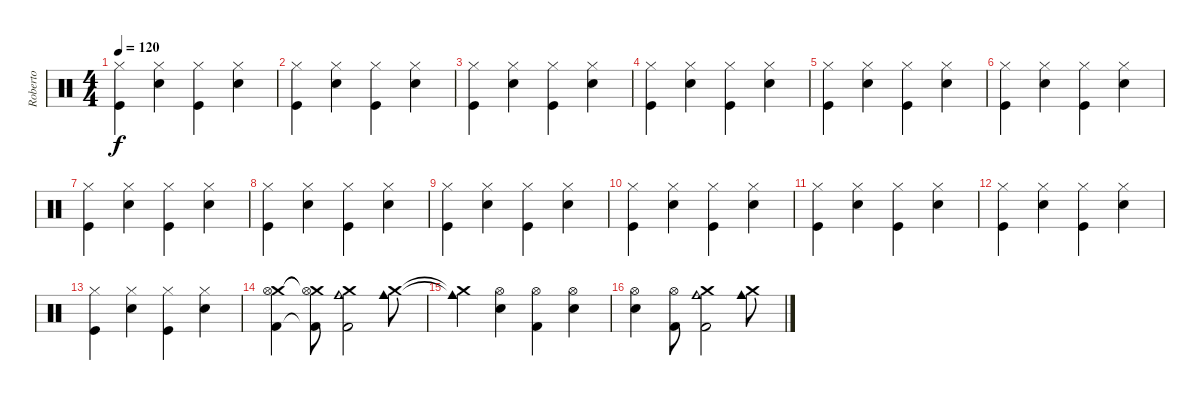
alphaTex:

\track ("Roberto" "Roberto") {instrument percussion}
\staff {score}
\articulation defaults
\ts (4 4)
\tempo 120
\clef neutral
\ks c
("Hi-Hat (closed)" "Kick (hit)").4{dy f} ("Hi-Hat (closed)" "Snare (hit) 2").4 ("Hi-Hat (closed)" "Kick (hit)").4 ("Hi-Hat (closed)" "Snare (hit) 2").4 |
("Hi-Hat (closed)" "Kick (hit)").4 ("Hi-Hat (closed)" "Snare (hit) 2").4 ("Hi-Hat (closed)" "Kick (hit)").4 ("Hi-Hat (closed)" "Snare (hit) 2").4 |
("Hi-Hat (closed)" "Kick (hit)").4 ("Hi-Hat (closed)" "Snare (hit) 2").4 ("Hi-Hat (closed)" "Kick (hit)").4 ("Hi-Hat (closed)" "Snare (hit) 2").4 |
("Hi-Hat (closed)" "Kick (hit)").4 ("Hi-Hat (closed)" "Snare (hit) 2").4 ("Hi-Hat (closed)" "Kick (hit)").4 ("Hi-Hat (closed)" "Snare (hit) 2").4 |
("Hi-Hat (closed)" "Kick (hit)").4 ("Hi-Hat (closed)" "Snare (hit) 2").4 ("Hi-Hat (closed)" "Kick (hit)").4 ("Hi-Hat (closed)" "Snare (hit) 2").4 |
("Hi-Hat (closed)" "Kick (hit)").4 ("Hi-Hat (closed)" "Snare (hit) 2").4 ("Hi-Hat (closed)" "Kick (hit)").4 ("Hi-Hat (closed)" "Snare (hit) 2").4 |
("Hi-Hat (closed)" "Kick (hit)").4 ("Hi-Hat (closed)" "Snare (hit) 2").4 ("Hi-Hat (closed)" "Kick (hit)").4 ("Hi-Hat (closed)" "Snare (hit) 2").4 |
("Hi-Hat (closed)" "Kick (hit)").4 ("Hi-Hat (closed)" "Snare (hit) 2").4 ("Hi-Hat (closed)" "Kick (hit)").4 ("Hi-Hat (closed)" "Snare (hit) 2").4 |
("Hi-Hat (closed)" "Kick (hit)").4 ("Hi-Hat (closed)" "Snare (hit) 2").4 ("Hi-Hat (closed)" "Kick (hit)").4 ("Hi-Hat (closed)" "Snare (hit) 2").4 |
("Hi-Hat (closed)" "Kick (hit)").4 ("Hi-Hat (closed)" "Snare (hit) 2").4 ("Hi-Hat (closed)" "Kick (hit)").4 ("Hi-Hat (closed)" "Snare (hit) 2").4 |
("Hi-Hat (closed)" "Kick (hit)").4 ("Hi-Hat (closed)" "Snare (hit) 2").4 ("Hi-Hat (closed)" "Kick (hit)").4 ("Hi-Hat (closed)" "Snare (hit) 2").4 |
("Hi-Hat (closed)" "Kick (hit)").4 ("Hi-Hat (closed)" "Snare (hit) 2").4 ("Hi-Hat (closed)" "Kick (hit)").4 ("Hi-Hat (closed)" "Snare (hit) 2").4 |
("Hi-Hat (closed)" "Kick (hit)").4 ("Hi-Hat (closed)" "Snare (hit) 2").4 ("Hi-Hat (closed)" "Kick (hit)").4 ("Hi-Hat (closed)" "Snare (hit) 2").4 |
("Crash medium (hit)" "Hi-Hat (open)" "Kick (hit) 2").4 ("Crash medium (hit)"{t} "Hi-Hat (open)"{t} "Kick (hit) 2"{t}).8 ("Crash medium (hit)" "Cowbell medium (hit)" "Kick (hit) 2").2 ("Crash medium (hit)" "Cowbell medium (hit)").8 |
("Crash medium (hit)"{t} "Cowbell medium (hit)"{t}).4 ("Hi-Hat (open)" "Snare (hit) 2").4 ("Hi-Hat (open)" "Kick (hit) 2").4 ("Hi-Hat (open)" "Snare (hit) 2").4 |
("Hi-Hat (open)" "Snare (hit) 2").4 ("Hi-Hat (open)" "Kick (hit) 2").8 ("Crash medium (hit)" "Cowbell medium (hit)" "Kick (hit) 2").2 ("Crash medium (hit)" "Cowbell medium (hit)").8
